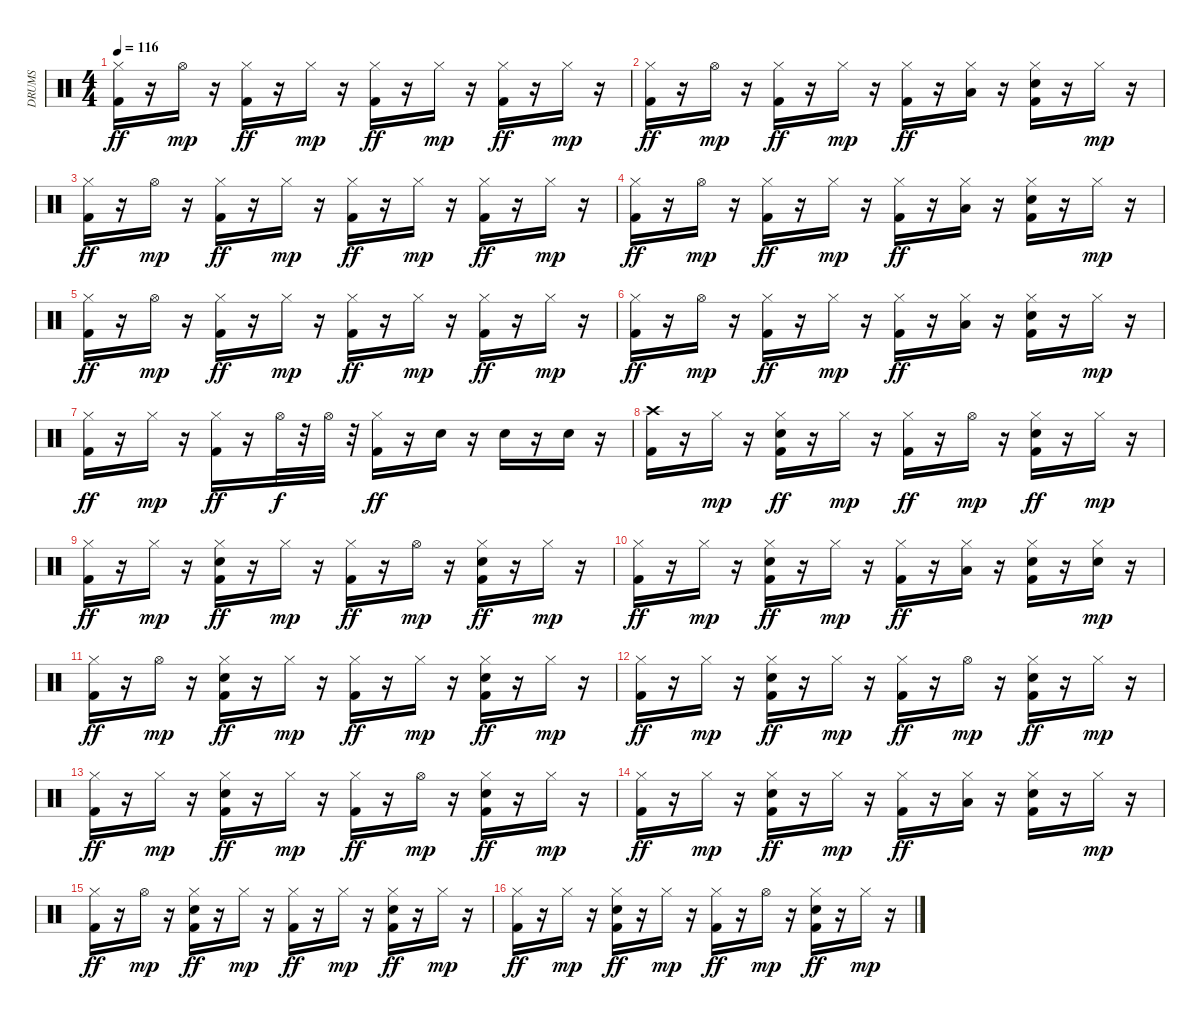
\track ("DRUMS   " "DRUMS   ") {instrument percussion}
\staff {score}
\articulation defaults
\ts (4 4)
\tempo 116
\clef neutral
\ks c
("Hi-Hat (closed)" "Kick (hit) 2").16{dy ff} r.16 "Hi-Hat (open)".16{dy mp} r.16 ("Hi-Hat (closed)" "Kick (hit) 2").16{dy ff} r.16 "Hi-Hat (closed)".16{dy mp} r.16 ("Hi-Hat (closed)" "Kick (hit) 2").16{dy ff} r.16 "Hi-Hat (closed)".16{dy mp} r.16 ("Hi-Hat (closed)" "Kick (hit) 2").16{dy ff} r.16 "Hi-Hat (closed)".16{dy mp} r.16 |
("Hi-Hat (closed)" "Kick (hit) 2").16{dy ff} r.16 "Hi-Hat (open)".16{dy mp} r.16 ("Hi-Hat (closed)" "Kick (hit) 2").16{dy ff} r.16 "Hi-Hat (closed)".16{dy mp} r.16 ("Hi-Hat (closed)" "Kick (hit) 2").16{dy ff} r.16 ("Hi-Hat (closed)" "Low Tom (hit)").16 r.16 ("Electric Snare (hit)" "Hi-Hat (closed)" "Kick (hit) 2").16 r.16 "Hi-Hat (closed)".16{dy mp} r.16 |
("Hi-Hat (closed)" "Kick (hit) 2").16{dy ff} r.16 "Hi-Hat (open)".16{dy mp} r.16 ("Hi-Hat (closed)" "Kick (hit) 2").16{dy ff} r.16 "Hi-Hat (closed)".16{dy mp} r.16 ("Hi-Hat (closed)" "Kick (hit) 2").16{dy ff} r.16 "Hi-Hat (closed)".16{dy mp} r.16 ("Hi-Hat (closed)" "Kick (hit) 2").16{dy ff} r.16 "Hi-Hat (closed)".16{dy mp} r.16 |
("Hi-Hat (closed)" "Kick (hit) 2").16{dy ff} r.16 "Hi-Hat (open)".16{dy mp} r.16 ("Hi-Hat (closed)" "Kick (hit) 2").16{dy ff} r.16 "Hi-Hat (closed)".16{dy mp} r.16 ("Hi-Hat (closed)" "Kick (hit) 2").16{dy ff} r.16 ("Hi-Hat (closed)" "Low Tom (hit)").16 r.16 ("Electric Snare (hit)" "Hi-Hat (closed)" "Kick (hit) 2").16 r.16 "Hi-Hat (closed)".16{dy mp} r.16 |
("Hi-Hat (closed)" "Kick (hit) 2").16{dy ff} r.16 "Hi-Hat (open)".16{dy mp} r.16 ("Hi-Hat (closed)" "Kick (hit) 2").16{dy ff} r.16 "Hi-Hat (closed)".16{dy mp} r.16 ("Hi-Hat (closed)" "Kick (hit) 2").16{dy ff} r.16 "Hi-Hat (closed)".16{dy mp} r.16 ("Hi-Hat (closed)" "Kick (hit) 2").16{dy ff} r.16 "Hi-Hat (closed)".16{dy mp} r.16 |
("Hi-Hat (closed)" "Kick (hit) 2").16{dy ff} r.16 "Hi-Hat (open)".16{dy mp} r.16 ("Hi-Hat (closed)" "Kick (hit) 2").16{dy ff} r.16 "Hi-Hat (closed)".16{dy mp} r.16 ("Hi-Hat (closed)" "Kick (hit) 2").16{dy ff} r.16 ("Hi-Hat (closed)" "Low Tom (hit)").16 r.16 ("Electric Snare (hit)" "Hi-Hat (closed)" "Kick (hit) 2").16 r.16 "Hi-Hat (closed)".16{dy mp} r.16 |
("Hi-Hat (closed)" "Kick (hit) 2").16{dy ff} r.16 "Hi-Hat (closed)".16{dy mp} r.16 ("Hi-Hat (closed)" "Kick (hit) 2").16{dy ff} r.16 "Hi-Hat (open)".32{dy f} r.32 "Hi-Hat (open)".32 r.32 ("Hi-Hat (closed)" "Kick (hit) 2").16{dy ff} r.16 "Electric Snare (hit)".16 r.16 "Electric Snare (hit)".16 r.16 "Electric Snare (hit)".16 r.16 |
("Crash high (hit)" "Kick (hit) 2").16 r.16 "Hi-Hat (closed)".16{dy mp} r.16 ("Electric Snare (hit)" "Hi-Hat (closed)" "Kick (hit) 2").16{dy ff} r.16 "Hi-Hat (closed)".16{dy mp} r.16 ("Hi-Hat (closed)" "Kick (hit) 2").16{dy ff} r.16 "Hi-Hat (open)".16{dy mp} r.16 ("Electric Snare (hit)" "Hi-Hat (closed)" "Kick (hit) 2").16{dy ff} r.16 "Hi-Hat (closed)".16{dy mp} r.16 |
("Hi-Hat (closed)" "Kick (hit) 2").16{dy ff} r.16 "Hi-Hat (closed)".16{dy mp} r.16 ("Electric Snare (hit)" "Hi-Hat (closed)" "Kick (hit) 2").16{dy ff} r.16 "Hi-Hat (closed)".16{dy mp} r.16 ("Hi-Hat (closed)" "Kick (hit) 2").16{dy ff} r.16 "Hi-Hat (open)".16{dy mp} r.16 ("Electric Snare (hit)" "Hi-Hat (closed)" "Kick (hit) 2").16{dy ff} r.16 "Hi-Hat (closed)".16{dy mp} r.16 |
("Hi-Hat (closed)" "Kick (hit) 2").16{dy ff} r.16 "Hi-Hat (closed)".16{dy mp} r.16 ("Electric Snare (hit)" "Hi-Hat (closed)" "Kick (hit) 2").16{dy ff} r.16 "Hi-Hat (closed)".16{dy mp} r.16 ("Hi-Hat (closed)" "Kick (hit) 2").16{dy ff} r.16 ("Hi-Hat (closed)" "Low Tom (hit)").16 r.16 ("Electric Snare (hit)" "Hi-Hat (closed)" "Kick (hit) 2").16 r.16 ("Electric Snare (hit)" "Hi-Hat (closed)").16{dy mp} r.16 |
("Hi-Hat (closed)" "Kick (hit) 2").16{dy ff} r.16 "Hi-Hat (open)".16{dy mp} r.16 ("Electric Snare (hit)" "Hi-Hat (closed)" "Kick (hit) 2").16{dy ff} r.16 "Hi-Hat (closed)".16{dy mp} r.16 ("Hi-Hat (closed)" "Kick (hit) 2").16{dy ff} r.16 "Hi-Hat (closed)".16{dy mp} r.16 ("Electric Snare (hit)" "Hi-Hat (closed)" "Kick (hit) 2").16{dy ff} r.16 "Hi-Hat (closed)".16{dy mp} r.16 |
("Hi-Hat (closed)" "Kick (hit) 2").16{dy ff} r.16 "Hi-Hat (closed)".16{dy mp} r.16 ("Electric Snare (hit)" "Hi-Hat (closed)" "Kick (hit) 2").16{dy ff} r.16 "Hi-Hat (closed)".16{dy mp} r.16 ("Hi-Hat (closed)" "Kick (hit) 2").16{dy ff} r.16 "Hi-Hat (open)".16{dy mp} r.16 ("Electric Snare (hit)" "Hi-Hat (closed)" "Kick (hit) 2").16{dy ff} r.16 "Hi-Hat (closed)".16{dy mp} r.16 |
("Hi-Hat (closed)" "Kick (hit) 2").16{dy ff} r.16 "Hi-Hat (closed)".16{dy mp} r.16 ("Electric Snare (hit)" "Hi-Hat (closed)" "Kick (hit) 2").16{dy ff} r.16 "Hi-Hat (closed)".16{dy mp} r.16 ("Hi-Hat (closed)" "Kick (hit) 2").16{dy ff} r.16 "Hi-Hat (open)".16{dy mp} r.16 ("Electric Snare (hit)" "Hi-Hat (closed)" "Kick (hit) 2").16{dy ff} r.16 "Hi-Hat (closed)".16{dy mp} r.16 |
("Hi-Hat (closed)" "Kick (hit) 2").16{dy ff} r.16 "Hi-Hat (closed)".16{dy mp} r.16 ("Electric Snare (hit)" "Hi-Hat (closed)" "Kick (hit) 2").16{dy ff} r.16 "Hi-Hat (closed)".16{dy mp} r.16 ("Hi-Hat (closed)" "Kick (hit) 2").16{dy ff} r.16 ("Hi-Hat (closed)" "Low Tom (hit)").16 r.16 ("Electric Snare (hit)" "Hi-Hat (closed)" "Kick (hit) 2").16 r.16 "Hi-Hat (closed)".16{dy mp} r.16 |
("Hi-Hat (closed)" "Kick (hit) 2").16{dy ff} r.16 "Hi-Hat (open)".16{dy mp} r.16 ("Electric Snare (hit)" "Hi-Hat (closed)" "Kick (hit) 2").16{dy ff} r.16 "Hi-Hat (closed)".16{dy mp} r.16 ("Hi-Hat (closed)" "Kick (hit) 2").16{dy ff} r.16 "Hi-Hat (closed)".16{dy mp} r.16 ("Electric Snare (hit)" "Hi-Hat (closed)" "Kick (hit) 2").16{dy ff} r.16 "Hi-Hat (closed)".16{dy mp} r.16 |
("Hi-Hat (closed)" "Kick (hit) 2").16{dy ff} r.16 "Hi-Hat (closed)".16{dy mp} r.16 ("Electric Snare (hit)" "Hi-Hat (closed)" "Kick (hit) 2").16{dy ff} r.16 "Hi-Hat (closed)".16{dy mp} r.16 ("Hi-Hat (closed)" "Kick (hit) 2").16{dy ff} r.16 "Hi-Hat (open)".16{dy mp} r.16 ("Electric Snare (hit)" "Hi-Hat (closed)" "Kick (hit) 2").16{dy ff} r.16 "Hi-Hat (closed)".16{dy mp} r.16
